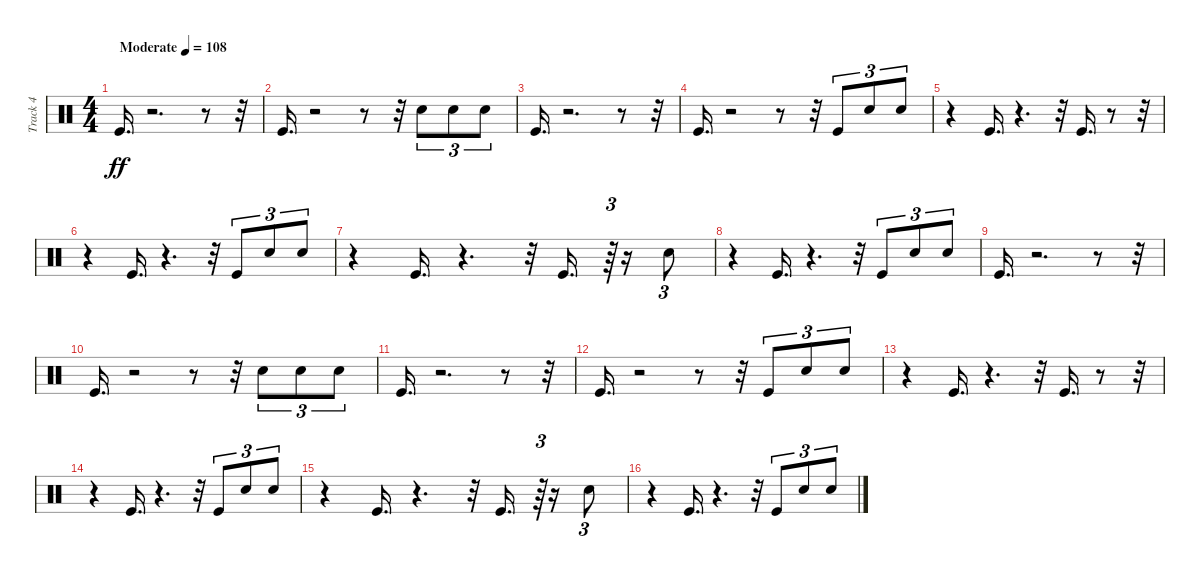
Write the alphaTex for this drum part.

\track ("Track 4" "Track 4") {instrument percussion}
\staff {score}
\articulation defaults
\ts (4 4)
\tempo (108 "Moderate")
\clef neutral
\ks c "Kick (hit)".16{d dy ff}
r.2{d} r.8 r.32 |
"Kick (hit)".16{d} r.2 r.8 r.32 "Snare (hit) 2".8{tu (3 2)} "Snare (hit) 2".8{tu (3 2)} "Snare (hit) 2".8{tu (3 2)} |
"Kick (hit)".16{d} r.2{d} r.8 r.32 |
"Kick (hit)".16{d} r.2 r.8 r.32 "Kick (hit)".8{tu (3 2)} "Snare (hit) 2".8{tu (3 2)} "Snare (hit) 2".8{tu (3 2)} |
r.4 "Kick (hit)".16{d} r.4{d} r.32 "Kick (hit)".16{d} r.8 r.32 |
r.4 "Kick (hit)".16{d} r.4{d} r.32 "Kick (hit)".8{tu (3 2)} "Snare (hit) 2".8{tu (3 2)} "Snare (hit) 2".8{tu (3 2)} |
r.4 "Kick (hit)".16{d} r.4{d} r.32 "Kick (hit)".16{d} r.64{tu (3 2)} r.16 "Snare (hit) 2".8{tu (3 2)} |
r.4 "Kick (hit)".16{d} r.4{d} r.32 "Kick (hit)".8{tu (3 2)} "Snare (hit) 2".8{tu (3 2)} "Snare (hit) 2".8{tu (3 2)} |
"Kick (hit)".16{d} r.2{d} r.8 r.32 |
"Kick (hit)".16{d} r.2 r.8 r.32 "Snare (hit) 2".8{tu (3 2)} "Snare (hit) 2".8{tu (3 2)} "Snare (hit) 2".8{tu (3 2)} |
"Kick (hit)".16{d} r.2{d} r.8 r.32 |
"Kick (hit)".16{d} r.2 r.8 r.32 "Kick (hit)".8{tu (3 2)} "Snare (hit) 2".8{tu (3 2)} "Snare (hit) 2".8{tu (3 2)} |
r.4 "Kick (hit)".16{d} r.4{d} r.32 "Kick (hit)".16{d} r.8 r.32 |
r.4 "Kick (hit)".16{d} r.4{d} r.32 "Kick (hit)".8{tu (3 2)} "Snare (hit) 2".8{tu (3 2)} "Snare (hit) 2".8{tu (3 2)} |
r.4 "Kick (hit)".16{d} r.4{d} r.32 "Kick (hit)".16{d} r.64{tu (3 2)} r.16 "Snare (hit) 2".8{tu (3 2)} |
r.4 "Kick (hit)".16{d} r.4{d} r.32 "Kick (hit)".8{tu (3 2)} "Snare (hit) 2".8{tu (3 2)} "Snare (hit) 2".8{tu (3 2)}
